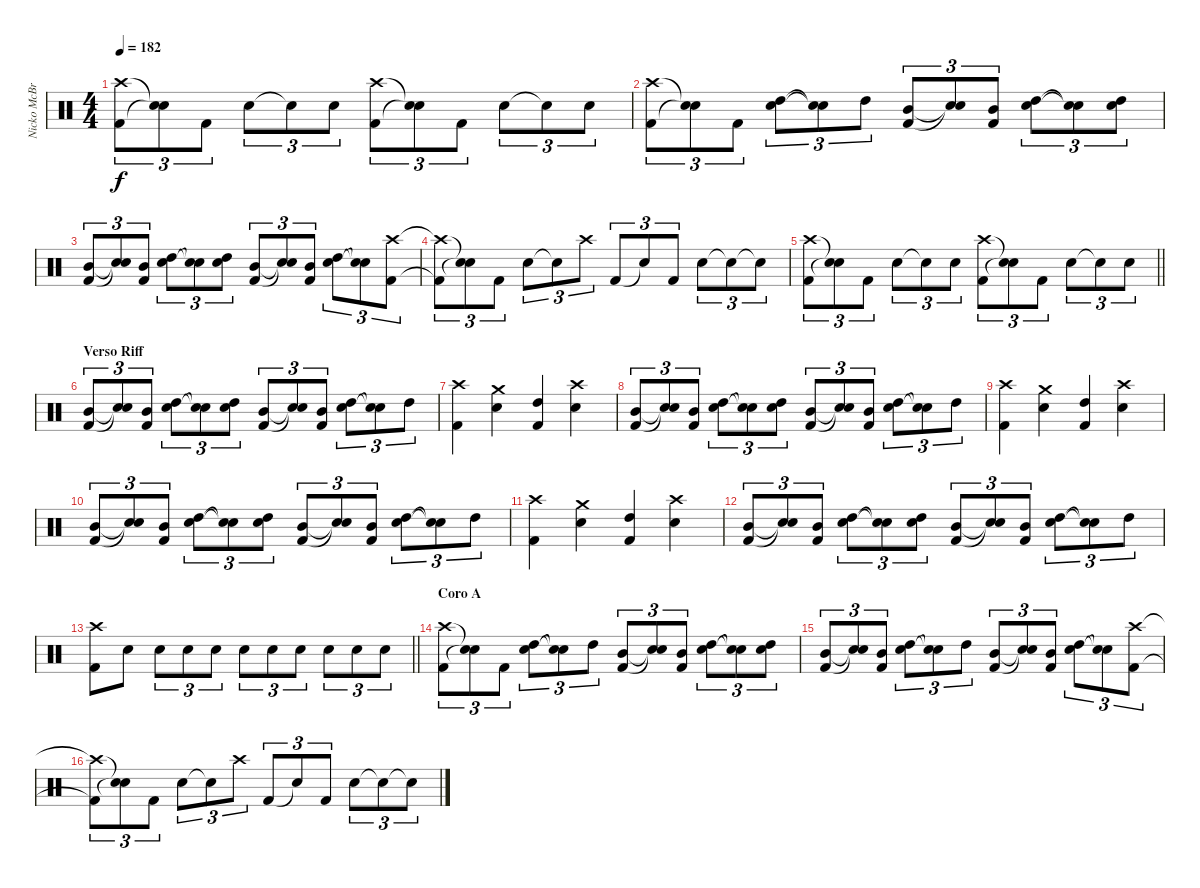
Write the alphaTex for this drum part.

\track ("Nicko McBrain" "Nicko McBr") {instrument percussion}
\staff {score}
\articulation defaults
\ts (4 4)
\tempo 182
\clef neutral
\ks c
("Kick (hit) 2" "Crash high (hit)").8{tu (3 2) dy f} ("Snare (hit)"{t} "Snare (hit)"{t}).8{tu (3 2)} "Kick (hit) 2".8{tu (3 2)} "Snare (hit) 2".8{tu (3 2)} "Snare (hit)"{t}.8{tu (3 2)} "Snare (hit) 2".8{tu (3 2)} ("Kick (hit) 2" "Crash high (hit)").8{tu (3 2)} ("Snare (hit)"{t} "Snare (hit)"{t}).8{tu (3 2)} "Kick (hit) 2".8{tu (3 2)} "Snare (hit) 2".8{tu (3 2)} "Snare (hit)"{t}.8{tu (3 2)} "Snare (hit) 2".8{tu (3 2)} |
("Kick (hit) 2" "Crash high (hit)").8{tu (3 2)} ("Snare (hit)"{t} "Snare (hit)"{t}).8{tu (3 2)} "Kick (hit) 2".8{tu (3 2)} ("High Tom (hit)" "Snare (hit) 2").8{tu (3 2)} ("Snare (hit)"{t} "Snare (hit)"{t}).8{tu (3 2)} "High Tom (hit)".8{tu (3 2)} ("Mid Tom (hit)" "Kick (hit) 2").8{tu (3 2)} ("Snare (hit)"{t} "Snare (hit)"{t}).8{tu (3 2)} ("Mid Tom (hit)" "Kick (hit) 2").8{tu (3 2)} ("High Tom (hit)" "Snare (hit) 2").8{tu (3 2)} ("Snare (hit)"{t} "Snare (hit)"{t}).8{tu (3 2)} ("High Tom (hit)" "Snare (hit) 2").8{tu (3 2)} |
("Mid Tom (hit)" "Kick (hit) 2").8{tu (3 2)} ("Snare (hit)"{t} "Snare (hit)"{t}).8{tu (3 2)} ("Mid Tom (hit)" "Kick (hit) 2").8{tu (3 2)} ("High Tom (hit)" "Snare (hit) 2").8{tu (3 2)} ("Snare (hit)"{t} "Snare (hit)"{t}).8{tu (3 2)} ("High Tom (hit)" "Snare (hit) 2").8{tu (3 2)} ("Mid Tom (hit)" "Kick (hit) 2").8{tu (3 2)} ("Snare (hit)"{t} "Snare (hit)"{t}).8{tu (3 2)} ("Mid Tom (hit)" "Kick (hit) 2").8{tu (3 2)} ("High Tom (hit)" "Snare (hit) 2").8{tu (3 2)} ("Snare (hit)"{t} "Snare (hit)"{t}).8{tu (3 2)} ("Kick (hit) 2" "Crash high (hit)").8{tu (3 2)} |
("Kick (hit) 2"{t} "Crash high (hit)"{t}).8{tu (3 2)} ("Snare (hit)"{t} "Snare (hit)"{t}).8{tu (3 2)} "Kick (hit) 2".8{tu (3 2)} "Snare (hit) 2".8{tu (3 2)} "Snare (hit)"{t}.8{tu (3 2)} "Crash high (hit)".8{tu (3 2)} "Kick (hit) 2".8{tu (3 2)} "Snare (hit)"{t}.8{tu (3 2)} "Kick (hit) 2".8{tu (3 2)} "Snare (hit) 2".8{tu (3 2)} "Snare (hit)"{t}.8{tu (3 2)} "Snare (hit)"{t}.8{tu (3 2)} |
\barLineRight lightlight
("Kick (hit) 2" "Crash high (hit)").8{tu (3 2)} ("Snare (hit)"{t} "Snare (hit)"{t}).8{tu (3 2)} "Kick (hit) 2".8{tu (3 2)} "Snare (hit) 2".8{tu (3 2)} "Snare (hit)"{t}.8{tu (3 2)} "Snare (hit) 2".8{tu (3 2)} ("Kick (hit) 2" "Crash high (hit)").8{tu (3 2)} ("Snare (hit)"{t} "Snare (hit)"{t}).8{tu (3 2)} "Kick (hit) 2".8{tu (3 2)} "Snare (hit) 2".8{tu (3 2)} "Snare (hit)"{t}.8{tu (3 2)} "Snare (hit) 2".8{tu (3 2)} |
\section ("" "Verso Riff")
("Mid Tom (hit)" "Kick (hit) 2").8{tu (3 2)} ("Snare (hit)"{t} "Snare (hit)"{t}).8{tu (3 2)} ("Mid Tom (hit)" "Kick (hit) 2").8{tu (3 2)} ("High Tom (hit)" "Snare (hit) 2").8{tu (3 2)} ("Snare (hit)"{t} "Snare (hit)"{t}).8{tu (3 2)} ("High Tom (hit)" "Snare (hit) 2").8{tu (3 2)} ("Mid Tom (hit)" "Kick (hit) 2").8{tu (3 2)} ("Snare (hit)"{t} "Snare (hit)"{t}).8{tu (3 2)} ("Mid Tom (hit)" "Kick (hit) 2").8{tu (3 2)} ("High Tom (hit)" "Snare (hit) 2").8{tu (3 2)} ("Snare (hit)"{t} "Snare (hit)"{t}).8{tu (3 2)} "High Tom (hit)".8{tu (3 2)} |
("Kick (hit) 2" "Crash high (hit)").4 ("Snare (hit) 2" "Crash medium (hit)").4 ("High Tom (hit)" "Kick (hit) 2").4 ("Snare (hit) 2" "Crash high (hit)").4 |
("Mid Tom (hit)" "Kick (hit) 2").8{tu (3 2)} ("Snare (hit)"{t} "Snare (hit)"{t}).8{tu (3 2)} ("Mid Tom (hit)" "Kick (hit) 2").8{tu (3 2)} ("High Tom (hit)" "Snare (hit) 2").8{tu (3 2)} ("Snare (hit)"{t} "Snare (hit)"{t}).8{tu (3 2)} ("High Tom (hit)" "Snare (hit) 2").8{tu (3 2)} ("Mid Tom (hit)" "Kick (hit) 2").8{tu (3 2)} ("Snare (hit)"{t} "Snare (hit)"{t}).8{tu (3 2)} ("Mid Tom (hit)" "Kick (hit) 2").8{tu (3 2)} ("High Tom (hit)" "Snare (hit) 2").8{tu (3 2)} ("Snare (hit)"{t} "Snare (hit)"{t}).8{tu (3 2)} "High Tom (hit)".8{tu (3 2)} |
("Kick (hit) 2" "Crash high (hit)").4 ("Snare (hit) 2" "Crash medium (hit)").4 ("High Tom (hit)" "Kick (hit) 2").4 ("Snare (hit) 2" "Crash high (hit)").4 |
("Mid Tom (hit)" "Kick (hit) 2").8{tu (3 2)} ("Snare (hit)"{t} "Snare (hit)"{t}).8{tu (3 2)} ("Mid Tom (hit)" "Kick (hit) 2").8{tu (3 2)} ("High Tom (hit)" "Snare (hit) 2").8{tu (3 2)} ("Snare (hit)"{t} "Snare (hit)"{t}).8{tu (3 2)} ("High Tom (hit)" "Snare (hit) 2").8{tu (3 2)} ("Mid Tom (hit)" "Kick (hit) 2").8{tu (3 2)} ("Snare (hit)"{t} "Snare (hit)"{t}).8{tu (3 2)} ("Mid Tom (hit)" "Kick (hit) 2").8{tu (3 2)} ("High Tom (hit)" "Snare (hit) 2").8{tu (3 2)} ("Snare (hit)"{t} "Snare (hit)"{t}).8{tu (3 2)} "High Tom (hit)".8{tu (3 2)} |
("Kick (hit) 2" "Crash high (hit)").4 ("Snare (hit) 2" "Crash medium (hit)").4 ("High Tom (hit)" "Kick (hit) 2").4 ("Snare (hit) 2" "Crash high (hit)").4 |
("Mid Tom (hit)" "Kick (hit) 2").8{tu (3 2)} ("Snare (hit)"{t} "Snare (hit)"{t}).8{tu (3 2)} ("Mid Tom (hit)" "Kick (hit) 2").8{tu (3 2)} ("High Tom (hit)" "Snare (hit) 2").8{tu (3 2)} ("Snare (hit)"{t} "Snare (hit)"{t}).8{tu (3 2)} ("High Tom (hit)" "Snare (hit) 2").8{tu (3 2)} ("Mid Tom (hit)" "Kick (hit) 2").8{tu (3 2)} ("Snare (hit)"{t} "Snare (hit)"{t}).8{tu (3 2)} ("Mid Tom (hit)" "Kick (hit) 2").8{tu (3 2)} ("High Tom (hit)" "Snare (hit) 2").8{tu (3 2)} ("Snare (hit)"{t} "Snare (hit)"{t}).8{tu (3 2)} "High Tom (hit)".8{tu (3 2)} |
\barLineRight lightlight
("Kick (hit) 2" "Crash high (hit)").8 "Snare (hit) 2".8 "Snare (hit) 2".8{tu (3 2)} "Snare (hit) 2".8{tu (3 2)} "Snare (hit) 2".8{tu (3 2)} "Snare (hit) 2".8{tu (3 2)} "Snare (hit) 2".8{tu (3 2)} "Snare (hit) 2".8{tu (3 2)} "Snare (hit) 2".8{tu (3 2)} "Snare (hit) 2".8{tu (3 2)} "Snare (hit) 2".8{tu (3 2)} |
\section ("" "Coro A")
("Kick (hit) 2" "Crash high (hit)").8{tu (3 2)} ("Snare (hit)"{t} "Snare (hit)"{t}).8{tu (3 2)} "Kick (hit) 2".8{tu (3 2)} ("High Tom (hit)" "Snare (hit) 2").8{tu (3 2)} ("Snare (hit)"{t} "Snare (hit)"{t}).8{tu (3 2)} "High Tom (hit)".8{tu (3 2)} ("Mid Tom (hit)" "Kick (hit) 2").8{tu (3 2)} ("Snare (hit)"{t} "Snare (hit)"{t}).8{tu (3 2)} ("Mid Tom (hit)" "Kick (hit) 2").8{tu (3 2)} ("High Tom (hit)" "Snare (hit) 2").8{tu (3 2)} ("Snare (hit)"{t} "Snare (hit)"{t}).8{tu (3 2)} ("High Tom (hit)" "Snare (hit) 2").8{tu (3 2)} |
("Mid Tom (hit)" "Kick (hit) 2").8{tu (3 2)} ("Snare (hit)"{t} "Snare (hit)"{t}).8{tu (3 2)} ("Mid Tom (hit)" "Kick (hit) 2").8{tu (3 2)} ("High Tom (hit)" "Snare (hit) 2").8{tu (3 2)} ("Snare (hit)"{t} "Snare (hit)"{t}).8{tu (3 2)} "High Tom (hit)".8{tu (3 2)} ("Mid Tom (hit)" "Kick (hit) 2").8{tu (3 2)} ("Snare (hit)"{t} "Snare (hit)"{t}).8{tu (3 2)} ("Mid Tom (hit)" "Kick (hit) 2").8{tu (3 2)} ("High Tom (hit)" "Snare (hit) 2").8{tu (3 2)} ("Snare (hit)"{t} "Snare (hit)"{t}).8{tu (3 2)} ("Kick (hit) 2" "Crash high (hit)").8{tu (3 2)} |
("Kick (hit) 2"{t} "Crash high (hit)"{t}).8{tu (3 2)} ("Snare (hit)"{t} "Snare (hit)"{t}).8{tu (3 2)} "Kick (hit) 2".8{tu (3 2)} "Snare (hit) 2".8{tu (3 2)} "Snare (hit)"{t}.8{tu (3 2)} "Crash high (hit)".8{tu (3 2)} "Kick (hit) 2".8{tu (3 2)} "Snare (hit)"{t}.8{tu (3 2)} "Kick (hit) 2".8{tu (3 2)} "Snare (hit) 2".8{tu (3 2)} "Snare (hit)"{t}.8{tu (3 2)} "Snare (hit)"{t}.8{tu (3 2)}
